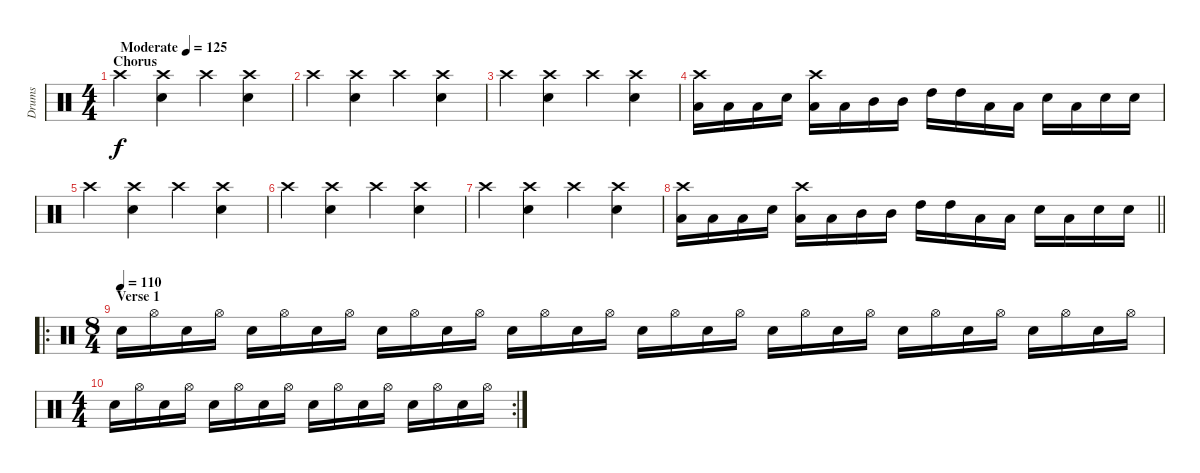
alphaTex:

\track ("Drums" "Drums") {instrument percussion}
\staff {score}
\articulation defaults
\ts (4 4)
\section ("" "Chorus")
\tempo (125 "Moderate")
\clef neutral
\ks c "Crash high (hit)".4{dy f}
("Crash high (hit)" "Electric Snare (hit)").4 "Crash high (hit)".4 ("Crash high (hit)" "Electric Snare (hit)").4 |
"Crash high (hit)".4 ("Crash high (hit)" "Electric Snare (hit)").4 "Crash high (hit)".4 ("Crash high (hit)" "Electric Snare (hit)").4 |
"Crash high (hit)".4 ("Crash high (hit)" "Electric Snare (hit)").4 "Crash high (hit)".4 ("Crash high (hit)" "Electric Snare (hit)").4 |
("Low Tom (hit)" "Crash high (hit)").16 "Low Tom (hit)".16 "Low Tom (hit)".16 "Electric Snare (hit)".16 ("Low Tom (hit)" "Crash high (hit)").16 "Low Tom (hit)".16 "Mid Tom (hit)".16 "Mid Tom (hit)".16 "High Tom (hit)".16 "High Tom (hit)".16 "Low Tom (hit)".16 "Low Tom (hit)".16 "Electric Snare (hit)".16 "Low Tom (hit)".16 "Electric Snare (hit)".16 "Electric Snare (hit)".16 |
"Crash high (hit)".4 ("Crash high (hit)" "Electric Snare (hit)").4 "Crash high (hit)".4 ("Crash high (hit)" "Electric Snare (hit)").4 |
"Crash high (hit)".4 ("Crash high (hit)" "Electric Snare (hit)").4 "Crash high (hit)".4 ("Crash high (hit)" "Electric Snare (hit)").4 |
"Crash high (hit)".4 ("Crash high (hit)" "Electric Snare (hit)").4 "Crash high (hit)".4 ("Crash high (hit)" "Electric Snare (hit)").4 |
\barLineRight lightlight
("Low Tom (hit)" "Crash high (hit)").16 "Low Tom (hit)".16 "Low Tom (hit)".16 "Electric Snare (hit)".16 ("Low Tom (hit)" "Crash high (hit)").16 "Low Tom (hit)".16 "Mid Tom (hit)".16 "Mid Tom (hit)".16 "High Tom (hit)".16 "High Tom (hit)".16 "Low Tom (hit)".16 "Low Tom (hit)".16 "Electric Snare (hit)".16 "Low Tom (hit)".16 "Electric Snare (hit)".16 "Electric Snare (hit)".16 |
\ro
\ts (8 4)
\section ("" "Verse 1")
\tempo (110)
"Electric Snare (hit)".16 "Hi-Hat (open)".16 "Electric Snare (hit)".16 "Hi-Hat (open)".16 "Electric Snare (hit)".16 "Hi-Hat (open)".16 "Electric Snare (hit)".16 "Hi-Hat (open)".16 "Electric Snare (hit)".16 "Hi-Hat (open)".16 "Electric Snare (hit)".16 "Hi-Hat (open)".16 "Electric Snare (hit)".16 "Hi-Hat (open)".16 "Electric Snare (hit)".16 "Hi-Hat (open)".16 "Electric Snare (hit)".16 "Hi-Hat (open)".16 "Electric Snare (hit)".16 "Hi-Hat (open)".16 "Electric Snare (hit)".16 "Hi-Hat (open)".16 "Electric Snare (hit)".16 "Hi-Hat (open)".16 "Electric Snare (hit)".16 "Hi-Hat (open)".16 "Electric Snare (hit)".16 "Hi-Hat (open)".16 "Electric Snare (hit)".16 "Hi-Hat (open)".16 "Electric Snare (hit)".16 "Hi-Hat (open)".16 |
\rc 2
\ts (4 4)
"Electric Snare (hit)".16 "Hi-Hat (open)".16 "Electric Snare (hit)".16 "Hi-Hat (open)".16 "Electric Snare (hit)".16 "Hi-Hat (open)".16 "Electric Snare (hit)".16 "Hi-Hat (open)".16 "Electric Snare (hit)".16 "Hi-Hat (open)".16 "Electric Snare (hit)".16 "Hi-Hat (open)".16 "Electric Snare (hit)".16 "Hi-Hat (open)".16 "Electric Snare (hit)".16 "Hi-Hat (open)".16
